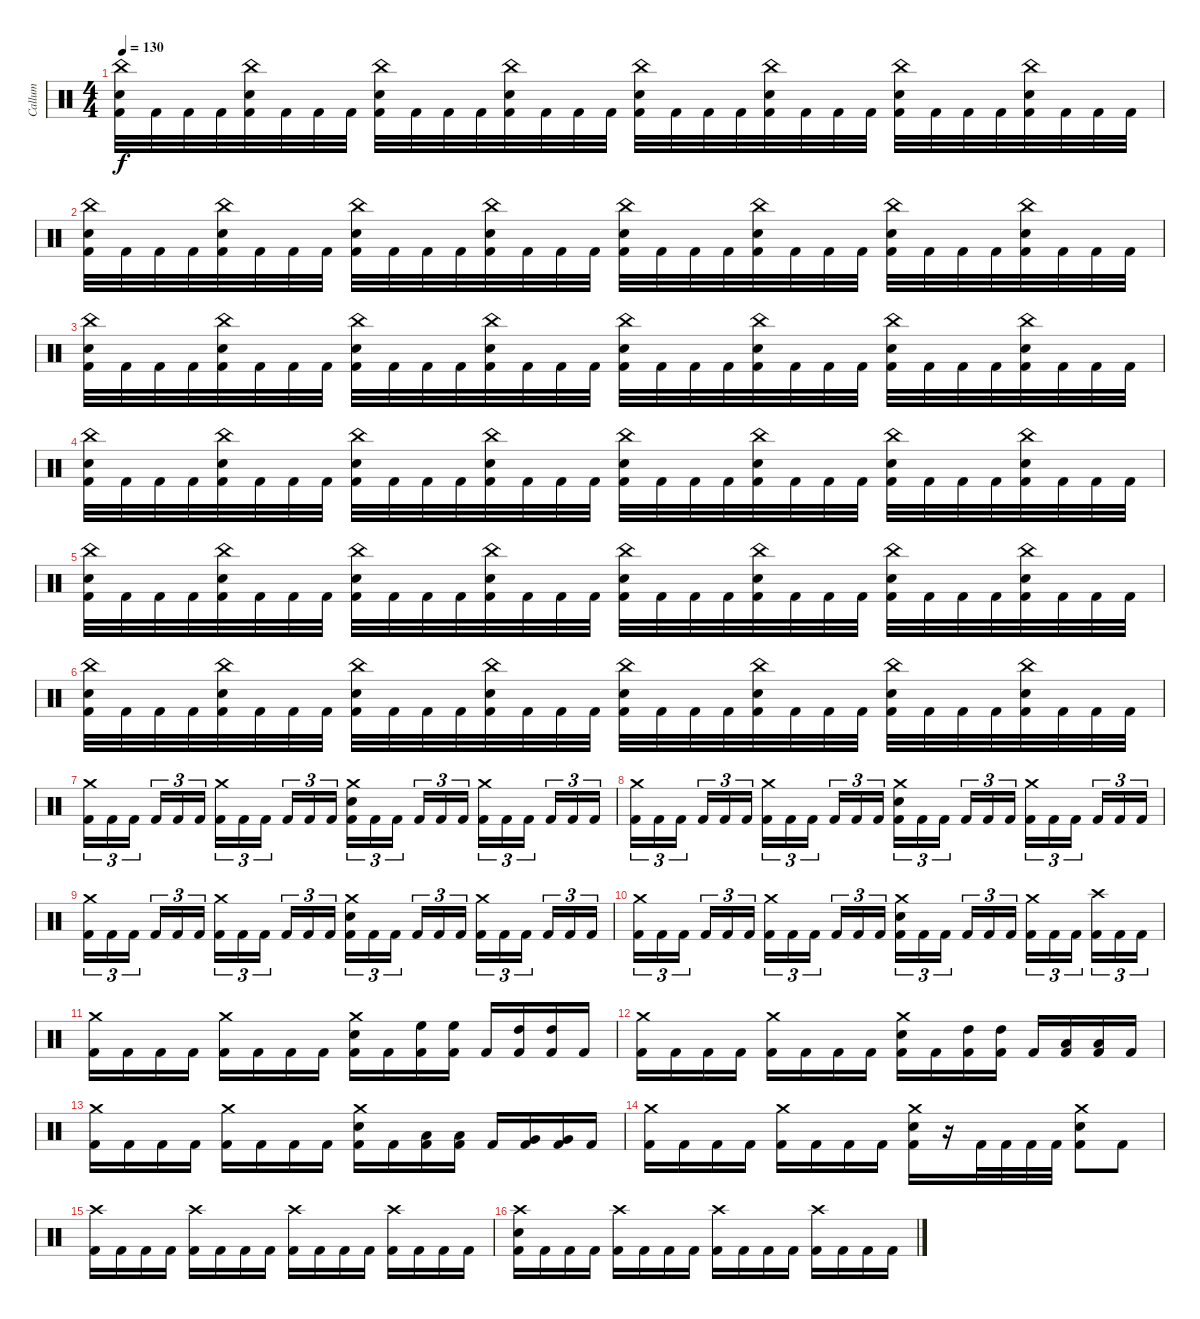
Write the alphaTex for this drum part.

\track ("Callum" "Callum") {instrument percussion}
\staff {score}
\articulation defaults
\ts (4 4)
\tempo 130
\clef neutral
\ks c
("China (hit)" "Electric Snare (hit)" "Kick (hit) 2").32{dy f} "Kick (hit) 2".32 "Kick (hit) 2".32 "Kick (hit) 2".32 ("China (hit)" "Electric Snare (hit)" "Kick (hit) 2").32 "Kick (hit) 2".32 "Kick (hit) 2".32 "Kick (hit) 2".32 ("China (hit)" "Electric Snare (hit)" "Kick (hit) 2").32 "Kick (hit) 2".32 "Kick (hit) 2".32 "Kick (hit) 2".32 ("China (hit)" "Electric Snare (hit)" "Kick (hit) 2").32 "Kick (hit) 2".32 "Kick (hit) 2".32 "Kick (hit) 2".32 ("China (hit)" "Electric Snare (hit)" "Kick (hit) 2").32 "Kick (hit) 2".32 "Kick (hit) 2".32 "Kick (hit) 2".32 ("China (hit)" "Electric Snare (hit)" "Kick (hit) 2").32 "Kick (hit) 2".32 "Kick (hit) 2".32 "Kick (hit) 2".32 ("China (hit)" "Electric Snare (hit)" "Kick (hit) 2").32 "Kick (hit) 2".32 "Kick (hit) 2".32 "Kick (hit) 2".32 ("China (hit)" "Electric Snare (hit)" "Kick (hit) 2").32 "Kick (hit) 2".32 "Kick (hit) 2".32 "Kick (hit) 2".32 |
("China (hit)" "Electric Snare (hit)" "Kick (hit) 2").32 "Kick (hit) 2".32 "Kick (hit) 2".32 "Kick (hit) 2".32 ("China (hit)" "Electric Snare (hit)" "Kick (hit) 2").32 "Kick (hit) 2".32 "Kick (hit) 2".32 "Kick (hit) 2".32 ("China (hit)" "Electric Snare (hit)" "Kick (hit) 2").32 "Kick (hit) 2".32 "Kick (hit) 2".32 "Kick (hit) 2".32 ("China (hit)" "Electric Snare (hit)" "Kick (hit) 2").32 "Kick (hit) 2".32 "Kick (hit) 2".32 "Kick (hit) 2".32 ("China (hit)" "Electric Snare (hit)" "Kick (hit) 2").32 "Kick (hit) 2".32 "Kick (hit) 2".32 "Kick (hit) 2".32 ("China (hit)" "Electric Snare (hit)" "Kick (hit) 2").32 "Kick (hit) 2".32 "Kick (hit) 2".32 "Kick (hit) 2".32 ("China (hit)" "Electric Snare (hit)" "Kick (hit) 2").32 "Kick (hit) 2".32 "Kick (hit) 2".32 "Kick (hit) 2".32 ("China (hit)" "Electric Snare (hit)" "Kick (hit) 2").32 "Kick (hit) 2".32 "Kick (hit) 2".32 "Kick (hit) 2".32 |
("China (hit)" "Electric Snare (hit)" "Kick (hit) 2").32 "Kick (hit) 2".32 "Kick (hit) 2".32 "Kick (hit) 2".32 ("China (hit)" "Electric Snare (hit)" "Kick (hit) 2").32 "Kick (hit) 2".32 "Kick (hit) 2".32 "Kick (hit) 2".32 ("China (hit)" "Electric Snare (hit)" "Kick (hit) 2").32 "Kick (hit) 2".32 "Kick (hit) 2".32 "Kick (hit) 2".32 ("China (hit)" "Electric Snare (hit)" "Kick (hit) 2").32 "Kick (hit) 2".32 "Kick (hit) 2".32 "Kick (hit) 2".32 ("China (hit)" "Electric Snare (hit)" "Kick (hit) 2").32 "Kick (hit) 2".32 "Kick (hit) 2".32 "Kick (hit) 2".32 ("China (hit)" "Electric Snare (hit)" "Kick (hit) 2").32 "Kick (hit) 2".32 "Kick (hit) 2".32 "Kick (hit) 2".32 ("China (hit)" "Electric Snare (hit)" "Kick (hit) 2").32 "Kick (hit) 2".32 "Kick (hit) 2".32 "Kick (hit) 2".32 ("China (hit)" "Electric Snare (hit)" "Kick (hit) 2").32 "Kick (hit) 2".32 "Kick (hit) 2".32 "Kick (hit) 2".32 |
("China (hit)" "Electric Snare (hit)" "Kick (hit) 2").32 "Kick (hit) 2".32 "Kick (hit) 2".32 "Kick (hit) 2".32 ("China (hit)" "Electric Snare (hit)" "Kick (hit) 2").32 "Kick (hit) 2".32 "Kick (hit) 2".32 "Kick (hit) 2".32 ("China (hit)" "Electric Snare (hit)" "Kick (hit) 2").32 "Kick (hit) 2".32 "Kick (hit) 2".32 "Kick (hit) 2".32 ("China (hit)" "Electric Snare (hit)" "Kick (hit) 2").32 "Kick (hit) 2".32 "Kick (hit) 2".32 "Kick (hit) 2".32 ("China (hit)" "Electric Snare (hit)" "Kick (hit) 2").32 "Kick (hit) 2".32 "Kick (hit) 2".32 "Kick (hit) 2".32 ("China (hit)" "Electric Snare (hit)" "Kick (hit) 2").32 "Kick (hit) 2".32 "Kick (hit) 2".32 "Kick (hit) 2".32 ("China (hit)" "Electric Snare (hit)" "Kick (hit) 2").32 "Kick (hit) 2".32 "Kick (hit) 2".32 "Kick (hit) 2".32 ("China (hit)" "Electric Snare (hit)" "Kick (hit) 2").32 "Kick (hit) 2".32 "Kick (hit) 2".32 "Kick (hit) 2".32 |
("China (hit)" "Electric Snare (hit)" "Kick (hit) 2").32 "Kick (hit) 2".32 "Kick (hit) 2".32 "Kick (hit) 2".32 ("China (hit)" "Electric Snare (hit)" "Kick (hit) 2").32 "Kick (hit) 2".32 "Kick (hit) 2".32 "Kick (hit) 2".32 ("China (hit)" "Electric Snare (hit)" "Kick (hit) 2").32 "Kick (hit) 2".32 "Kick (hit) 2".32 "Kick (hit) 2".32 ("China (hit)" "Electric Snare (hit)" "Kick (hit) 2").32 "Kick (hit) 2".32 "Kick (hit) 2".32 "Kick (hit) 2".32 ("China (hit)" "Electric Snare (hit)" "Kick (hit) 2").32 "Kick (hit) 2".32 "Kick (hit) 2".32 "Kick (hit) 2".32 ("China (hit)" "Electric Snare (hit)" "Kick (hit) 2").32 "Kick (hit) 2".32 "Kick (hit) 2".32 "Kick (hit) 2".32 ("China (hit)" "Electric Snare (hit)" "Kick (hit) 2").32 "Kick (hit) 2".32 "Kick (hit) 2".32 "Kick (hit) 2".32 ("China (hit)" "Electric Snare (hit)" "Kick (hit) 2").32 "Kick (hit) 2".32 "Kick (hit) 2".32 "Kick (hit) 2".32 |
("China (hit)" "Electric Snare (hit)" "Kick (hit) 2").32 "Kick (hit) 2".32 "Kick (hit) 2".32 "Kick (hit) 2".32 ("China (hit)" "Electric Snare (hit)" "Kick (hit) 2").32 "Kick (hit) 2".32 "Kick (hit) 2".32 "Kick (hit) 2".32 ("China (hit)" "Electric Snare (hit)" "Kick (hit) 2").32 "Kick (hit) 2".32 "Kick (hit) 2".32 "Kick (hit) 2".32 ("China (hit)" "Electric Snare (hit)" "Kick (hit) 2").32 "Kick (hit) 2".32 "Kick (hit) 2".32 "Kick (hit) 2".32 ("China (hit)" "Electric Snare (hit)" "Kick (hit) 2").32 "Kick (hit) 2".32 "Kick (hit) 2".32 "Kick (hit) 2".32 ("China (hit)" "Electric Snare (hit)" "Kick (hit) 2").32 "Kick (hit) 2".32 "Kick (hit) 2".32 "Kick (hit) 2".32 ("China (hit)" "Electric Snare (hit)" "Kick (hit) 2").32 "Kick (hit) 2".32 "Kick (hit) 2".32 "Kick (hit) 2".32 ("China (hit)" "Electric Snare (hit)" "Kick (hit) 2").32 "Kick (hit) 2".32 "Kick (hit) 2".32 "Kick (hit) 2".32 |
("Crash medium (hit)" "Kick (hit) 2").16{tu (3 2)} "Kick (hit) 2".16{tu (3 2)} "Kick (hit) 2".16{tu (3 2) beam splitsecondary} "Kick (hit) 2".16{tu (3 2)} "Kick (hit) 2".16{tu (3 2)} "Kick (hit) 2".16{tu (3 2)} ("Crash medium (hit)" "Kick (hit) 2").16{tu (3 2)} "Kick (hit) 2".16{tu (3 2)} "Kick (hit) 2".16{tu (3 2) beam splitsecondary} "Kick (hit) 2".16{tu (3 2)} "Kick (hit) 2".16{tu (3 2)} "Kick (hit) 2".16{tu (3 2)} ("Crash medium (hit)" "Electric Snare (hit)" "Kick (hit) 2").16{tu (3 2)} "Kick (hit) 2".16{tu (3 2)} "Kick (hit) 2".16{tu (3 2) beam splitsecondary} "Kick (hit) 2".16{tu (3 2)} "Kick (hit) 2".16{tu (3 2)} "Kick (hit) 2".16{tu (3 2)} ("Crash medium (hit)" "Kick (hit) 2").16{tu (3 2)} "Kick (hit) 2".16{tu (3 2)} "Kick (hit) 2".16{tu (3 2) beam splitsecondary} "Kick (hit) 2".16{tu (3 2)} "Kick (hit) 2".16{tu (3 2)} "Kick (hit) 2".16{tu (3 2)} |
("Crash medium (hit)" "Kick (hit) 2").16{tu (3 2)} "Kick (hit) 2".16{tu (3 2)} "Kick (hit) 2".16{tu (3 2) beam splitsecondary} "Kick (hit) 2".16{tu (3 2)} "Kick (hit) 2".16{tu (3 2)} "Kick (hit) 2".16{tu (3 2)} ("Crash medium (hit)" "Kick (hit) 2").16{tu (3 2)} "Kick (hit) 2".16{tu (3 2)} "Kick (hit) 2".16{tu (3 2) beam splitsecondary} "Kick (hit) 2".16{tu (3 2)} "Kick (hit) 2".16{tu (3 2)} "Kick (hit) 2".16{tu (3 2)} ("Crash medium (hit)" "Electric Snare (hit)" "Kick (hit) 2").16{tu (3 2)} "Kick (hit) 2".16{tu (3 2)} "Kick (hit) 2".16{tu (3 2) beam splitsecondary} "Kick (hit) 2".16{tu (3 2)} "Kick (hit) 2".16{tu (3 2)} "Kick (hit) 2".16{tu (3 2)} ("Crash medium (hit)" "Kick (hit) 2").16{tu (3 2)} "Kick (hit) 2".16{tu (3 2)} "Kick (hit) 2".16{tu (3 2) beam splitsecondary} "Kick (hit) 2".16{tu (3 2)} "Kick (hit) 2".16{tu (3 2)} "Kick (hit) 2".16{tu (3 2)} |
("Crash medium (hit)" "Kick (hit) 2").16{tu (3 2)} "Kick (hit) 2".16{tu (3 2)} "Kick (hit) 2".16{tu (3 2) beam splitsecondary} "Kick (hit) 2".16{tu (3 2)} "Kick (hit) 2".16{tu (3 2)} "Kick (hit) 2".16{tu (3 2)} ("Crash medium (hit)" "Kick (hit) 2").16{tu (3 2)} "Kick (hit) 2".16{tu (3 2)} "Kick (hit) 2".16{tu (3 2) beam splitsecondary} "Kick (hit) 2".16{tu (3 2)} "Kick (hit) 2".16{tu (3 2)} "Kick (hit) 2".16{tu (3 2)} ("Crash medium (hit)" "Electric Snare (hit)" "Kick (hit) 2").16{tu (3 2)} "Kick (hit) 2".16{tu (3 2)} "Kick (hit) 2".16{tu (3 2) beam splitsecondary} "Kick (hit) 2".16{tu (3 2)} "Kick (hit) 2".16{tu (3 2)} "Kick (hit) 2".16{tu (3 2)} ("Crash medium (hit)" "Kick (hit) 2").16{tu (3 2)} "Kick (hit) 2".16{tu (3 2)} "Kick (hit) 2".16{tu (3 2) beam splitsecondary} "Kick (hit) 2".16{tu (3 2)} "Kick (hit) 2".16{tu (3 2)} "Kick (hit) 2".16{tu (3 2)} |
("Crash medium (hit)" "Kick (hit) 2").16{tu (3 2)} "Kick (hit) 2".16{tu (3 2)} "Kick (hit) 2".16{tu (3 2) beam splitsecondary} "Kick (hit) 2".16{tu (3 2)} "Kick (hit) 2".16{tu (3 2)} "Kick (hit) 2".16{tu (3 2)} ("Crash medium (hit)" "Kick (hit) 2").16{tu (3 2)} "Kick (hit) 2".16{tu (3 2)} "Kick (hit) 2".16{tu (3 2) beam splitsecondary} "Kick (hit) 2".16{tu (3 2)} "Kick (hit) 2".16{tu (3 2)} "Kick (hit) 2".16{tu (3 2)} ("Crash medium (hit)" "Electric Snare (hit)" "Kick (hit) 2").16{tu (3 2)} "Kick (hit) 2".16{tu (3 2)} "Kick (hit) 2".16{tu (3 2) beam splitsecondary} "Kick (hit) 2".16{tu (3 2)} "Kick (hit) 2".16{tu (3 2)} "Kick (hit) 2".16{tu (3 2)} ("Crash medium (hit)" "Kick (hit) 2").16{tu (3 2)} "Kick (hit) 2".16{tu (3 2)} "Kick (hit) 2".16{tu (3 2) beam splitsecondary} ("Crash high (hit)" "Kick (hit) 2").16{tu (3 2)} "Kick (hit) 2".16{tu (3 2)} "Kick (hit) 2".16{tu (3 2)} |
("Crash medium (hit)" "Kick (hit) 2").16 "Kick (hit) 2".16 "Kick (hit) 2".16 "Kick (hit) 2".16 ("Crash medium (hit)" "Kick (hit) 2").16 "Kick (hit) 2".16 "Kick (hit) 2".16 "Kick (hit) 2".16 ("Crash medium (hit)" "Electric Snare (hit)" "Kick (hit) 2").16 "Kick (hit) 2".16 ("High Floor Tom (hit)" "Kick (hit) 2").16 ("High Floor Tom (hit)" "Kick (hit) 2").16 "Kick (hit) 2".16 ("High Tom (hit)" "Kick (hit) 2").16 ("High Tom (hit)" "Kick (hit) 2").16 "Kick (hit) 2".16 |
("Crash medium (hit)" "Kick (hit) 2").16 "Kick (hit) 2".16 "Kick (hit) 2".16 "Kick (hit) 2".16 ("Crash medium (hit)" "Kick (hit) 2").16 "Kick (hit) 2".16 "Kick (hit) 2".16 "Kick (hit) 2".16 ("Crash medium (hit)" "Electric Snare (hit)" "Kick (hit) 2").16 "Kick (hit) 2".16 ("High Tom (hit)" "Kick (hit) 2").16 ("High Tom (hit)" "Kick (hit) 2").16 "Kick (hit) 2".16 ("Low Tom (hit)" "Kick (hit) 2").16 ("Low Tom (hit)" "Kick (hit) 2").16 "Kick (hit) 2".16 |
("Crash medium (hit)" "Kick (hit) 2").16 "Kick (hit) 2".16 "Kick (hit) 2".16 "Kick (hit) 2".16 ("Crash medium (hit)" "Kick (hit) 2").16 "Kick (hit) 2".16 "Kick (hit) 2".16 "Kick (hit) 2".16 ("Crash medium (hit)" "Electric Snare (hit)" "Kick (hit) 2").16 "Kick (hit) 2".16 ("Low Tom (hit)" "Kick (hit) 2").16 ("Low Tom (hit)" "Kick (hit) 2").16 "Kick (hit) 2".16 ("Very Low Tom (hit)" "Kick (hit) 2").16 ("Very Low Tom (hit)" "Kick (hit) 2").16 "Kick (hit) 2".16 |
("Crash medium (hit)" "Kick (hit) 2").16 "Kick (hit) 2".16 "Kick (hit) 2".16 "Kick (hit) 2".16 ("Crash medium (hit)" "Kick (hit) 2").16 "Kick (hit) 2".16 "Kick (hit) 2".16 "Kick (hit) 2".16 ("Crash medium (hit)" "Electric Snare (hit)" "Kick (hit) 2").16 r.16 "Kick (hit) 2".32 "Kick (hit) 2".32 "Kick (hit) 2".32 "Kick (hit) 2".32 ("Crash medium (hit)" "Electric Snare (hit)" "Kick (hit) 2").8 "Kick (hit) 2".8 |
("Crash high (hit)" "Kick (hit) 2").16 "Kick (hit) 2".16 "Kick (hit) 2".16 "Kick (hit) 2".16 ("Crash high (hit)" "Kick (hit) 2").16 "Kick (hit) 2".16 "Kick (hit) 2".16 "Kick (hit) 2".16 ("Crash high (hit)" "Kick (hit) 2").16 "Kick (hit) 2".16 "Kick (hit) 2".16 "Kick (hit) 2".16 ("Crash high (hit)" "Kick (hit) 2").16 "Kick (hit) 2".16 "Kick (hit) 2".16 "Kick (hit) 2".16 |
("Crash high (hit)" "Electric Snare (hit)" "Kick (hit) 2").16 "Kick (hit) 2".16 "Kick (hit) 2".16 "Kick (hit) 2".16 ("Crash high (hit)" "Kick (hit) 2").16 "Kick (hit) 2".16 "Kick (hit) 2".16 "Kick (hit) 2".16 ("Crash high (hit)" "Kick (hit) 2").16 "Kick (hit) 2".16 "Kick (hit) 2".16 "Kick (hit) 2".16 ("Crash high (hit)" "Kick (hit) 2").16 "Kick (hit) 2".16 "Kick (hit) 2".16 "Kick (hit) 2".16
